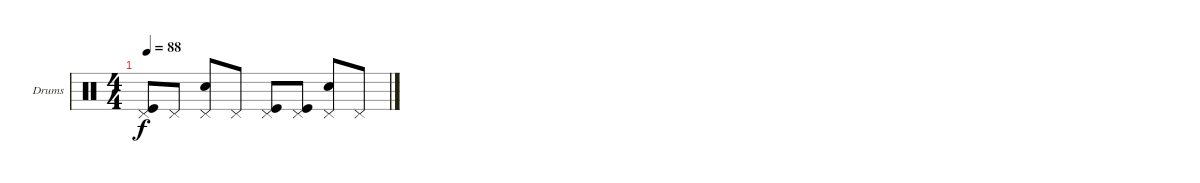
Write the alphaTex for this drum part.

\bracketExtendMode groupsimilarinstruments
\firstSystemTrackNameOrientation horizontal
\otherSystemsTrackNameOrientation horizontal
\track ("Drumkit" "Drums") {instrument percussion}
\staff {score}
\articulation defaults
\ts (4 4)
\tempo 88
\clef neutral
\ks c
("Pedal Hi-Hat (hit)" "Kick (hit)").8{dy f} "Pedal Hi-Hat (hit)".8 ("Pedal Hi-Hat (hit)" "Snare (hit) 2").8 "Pedal Hi-Hat (hit)".8 ("Pedal Hi-Hat (hit)" "Kick (hit)").8 ("Pedal Hi-Hat (hit)" "Kick (hit)").8 ("Pedal Hi-Hat (hit)" "Snare (hit) 2").8 "Pedal Hi-Hat (hit)".8
